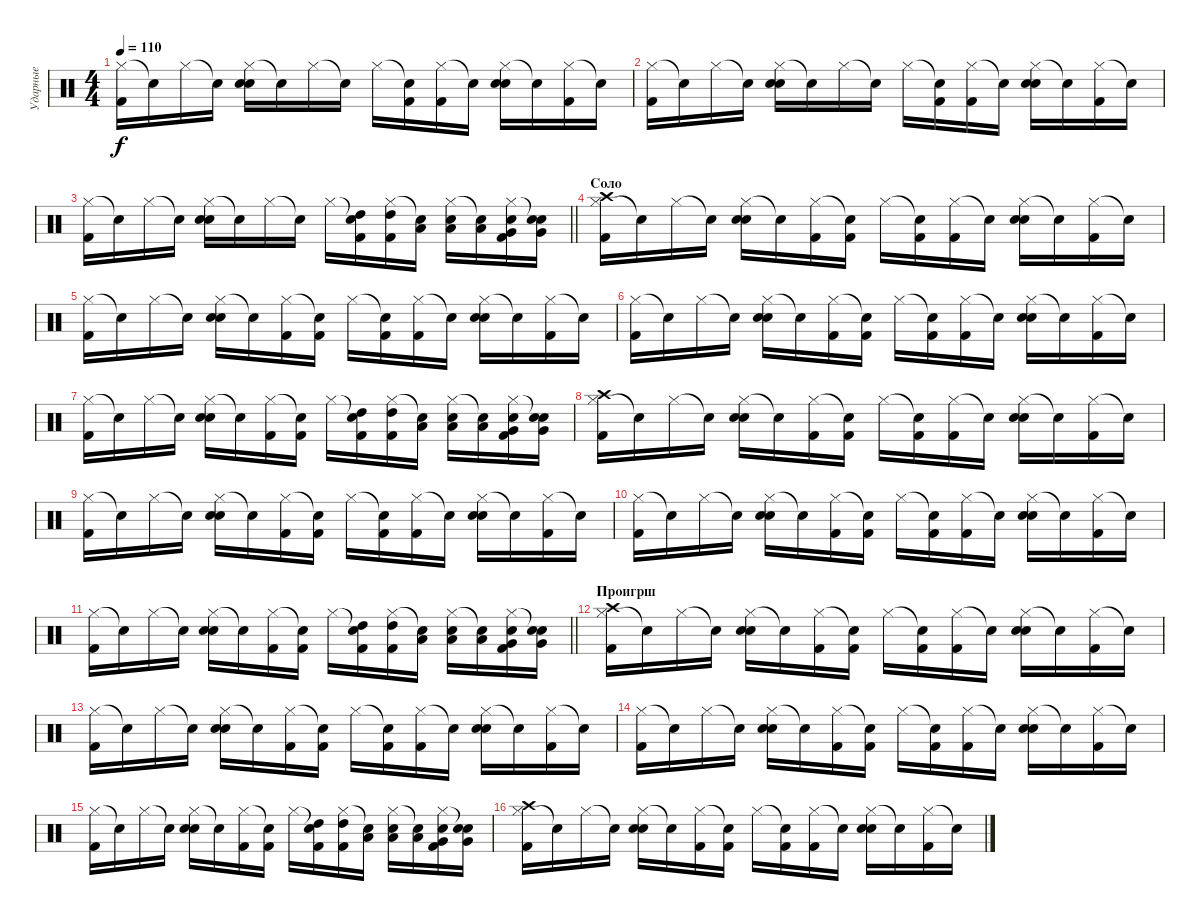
\track ("Ударные" "Ударные") {instrument percussion}
\staff {score}
\articulation defaults
\ts (4 4)
\tempo 110
\clef neutral
\ks c
("Hi-Hat (closed)" "Kick (hit) 2").16{dy f} "Snare (hit)"{t}.16 "Hi-Hat (closed)".16 "Snare (hit)"{t}.16 ("Hi-Hat (closed)" "Snare (hit) 2" "Electric Snare (hit)").16 "Snare (hit)"{t}.16 "Hi-Hat (closed)".16 "Snare (hit)"{t}.16 "Hi-Hat (closed)".16 ("Snare (hit)"{t} "Kick (hit) 2").16 ("Hi-Hat (closed)" "Kick (hit) 2").16 "Snare (hit)"{t}.16 ("Hi-Hat (closed)" "Electric Snare (hit)" "Snare (hit) 2").16 "Snare (hit)"{t}.16 ("Hi-Hat (closed)" "Kick (hit) 2").16 "Snare (hit)"{t}.16 |
("Hi-Hat (closed)" "Kick (hit) 2").16 "Snare (hit)"{t}.16 "Hi-Hat (closed)".16 "Snare (hit)"{t}.16 ("Hi-Hat (closed)" "Snare (hit) 2" "Electric Snare (hit)").16 "Snare (hit)"{t}.16 "Hi-Hat (closed)".16 "Snare (hit)"{t}.16 "Hi-Hat (closed)".16 ("Snare (hit)"{t} "Kick (hit) 2").16 ("Hi-Hat (closed)" "Kick (hit) 2").16 "Snare (hit)"{t}.16 ("Hi-Hat (closed)" "Electric Snare (hit)" "Snare (hit) 2").16 "Snare (hit)"{t}.16 ("Hi-Hat (closed)" "Kick (hit) 2").16 "Snare (hit)"{t}.16 |
\barLineRight lightlight
("Hi-Hat (closed)" "Kick (hit) 2").16 "Snare (hit)"{t}.16 "Hi-Hat (closed)".16 "Snare (hit)"{t}.16 ("Hi-Hat (closed)" "Snare (hit) 2" "Electric Snare (hit)").16 "Snare (hit)"{t}.16 "Hi-Hat (closed)".16 "Snare (hit)"{t}.16 "Hi-Hat (closed)".16 ("Snare (hit)"{t} "High Tom (hit)" "Kick (hit) 2").16 ("Hi-Hat (closed)" "High Tom (hit)" "Kick (hit) 2").16 ("Snare (hit)"{t} "Low Tom (hit)").16 ("Hi-Hat (closed)" "Low Tom (hit)" "Snare (hit) 2").16 ("Snare (hit)"{t} "Low Tom (hit)").16 ("Hi-Hat (closed)" "Very Low Tom (hit)" "Electric Snare (hit)" "Kick (hit) 2").16 ("Snare (hit)"{t} "Very Low Tom (hit)" "Electric Snare (hit)").16 |
\section ("" "Соло")
("Hi-Hat (closed)" "Crash high (hit)" "Kick (hit) 2").16 "Snare (hit)"{t}.16 "Hi-Hat (closed)".16 "Snare (hit)"{t}.16 ("Hi-Hat (closed)" "Snare (hit) 2" "Electric Snare (hit)").16 "Snare (hit)"{t}.16 ("Hi-Hat (closed)" "Kick (hit) 2").16 ("Snare (hit)"{t} "Kick (hit) 2").16 "Hi-Hat (closed)".16 ("Snare (hit)"{t} "Kick (hit) 2").16 ("Hi-Hat (closed)" "Kick (hit) 2").16 "Snare (hit)"{t}.16 ("Hi-Hat (closed)" "Electric Snare (hit)" "Snare (hit) 2").16 "Snare (hit)"{t}.16 ("Hi-Hat (closed)" "Kick (hit) 2").16 "Snare (hit)"{t}.16 |
("Hi-Hat (closed)" "Kick (hit) 2").16 "Snare (hit)"{t}.16 "Hi-Hat (closed)".16 "Snare (hit)"{t}.16 ("Hi-Hat (closed)" "Snare (hit) 2" "Electric Snare (hit)").16 "Snare (hit)"{t}.16 ("Hi-Hat (closed)" "Kick (hit) 2").16 ("Snare (hit)"{t} "Kick (hit) 2").16 "Hi-Hat (closed)".16 ("Snare (hit)"{t} "Kick (hit) 2").16 ("Hi-Hat (closed)" "Kick (hit) 2").16 "Snare (hit)"{t}.16 ("Hi-Hat (closed)" "Electric Snare (hit)" "Snare (hit) 2").16 "Snare (hit)"{t}.16 ("Hi-Hat (closed)" "Kick (hit) 2").16 "Snare (hit)"{t}.16 |
("Hi-Hat (closed)" "Kick (hit) 2").16 "Snare (hit)"{t}.16 "Hi-Hat (closed)".16 "Snare (hit)"{t}.16 ("Hi-Hat (closed)" "Snare (hit) 2" "Electric Snare (hit)").16 "Snare (hit)"{t}.16 ("Hi-Hat (closed)" "Kick (hit) 2").16 ("Snare (hit)"{t} "Kick (hit) 2").16 "Hi-Hat (closed)".16 ("Snare (hit)"{t} "Kick (hit) 2").16 ("Hi-Hat (closed)" "Kick (hit) 2").16 "Snare (hit)"{t}.16 ("Hi-Hat (closed)" "Electric Snare (hit)" "Snare (hit) 2").16 "Snare (hit)"{t}.16 ("Hi-Hat (closed)" "Kick (hit) 2").16 "Snare (hit)"{t}.16 |
("Hi-Hat (closed)" "Kick (hit) 2").16 "Snare (hit)"{t}.16 "Hi-Hat (closed)".16 "Snare (hit)"{t}.16 ("Hi-Hat (closed)" "Snare (hit) 2" "Electric Snare (hit)").16 "Snare (hit)"{t}.16 ("Hi-Hat (closed)" "Kick (hit) 2").16 ("Snare (hit)"{t} "Kick (hit) 2").16 "Hi-Hat (closed)".16 ("Snare (hit)"{t} "High Tom (hit)" "Kick (hit) 2").16 ("Hi-Hat (closed)" "High Tom (hit)" "Kick (hit) 2").16 ("Snare (hit)"{t} "Low Tom (hit)").16 ("Hi-Hat (closed)" "Low Tom (hit)" "Snare (hit) 2").16 ("Snare (hit)"{t} "Low Tom (hit)").16 ("Hi-Hat (closed)" "Very Low Tom (hit)" "Electric Snare (hit)" "Kick (hit) 2").16 ("Snare (hit)"{t} "Very Low Tom (hit)" "Electric Snare (hit)").16 |
("Hi-Hat (closed)" "Crash high (hit)" "Kick (hit) 2").16 "Snare (hit)"{t}.16 "Hi-Hat (closed)".16 "Snare (hit)"{t}.16 ("Hi-Hat (closed)" "Snare (hit) 2" "Electric Snare (hit)").16 "Snare (hit)"{t}.16 ("Hi-Hat (closed)" "Kick (hit) 2").16 ("Snare (hit)"{t} "Kick (hit) 2").16 "Hi-Hat (closed)".16 ("Snare (hit)"{t} "Kick (hit) 2").16 ("Hi-Hat (closed)" "Kick (hit) 2").16 "Snare (hit)"{t}.16 ("Hi-Hat (closed)" "Electric Snare (hit)" "Snare (hit) 2").16 "Snare (hit)"{t}.16 ("Hi-Hat (closed)" "Kick (hit) 2").16 "Snare (hit)"{t}.16 |
("Hi-Hat (closed)" "Kick (hit) 2").16 "Snare (hit)"{t}.16 "Hi-Hat (closed)".16 "Snare (hit)"{t}.16 ("Hi-Hat (closed)" "Snare (hit) 2" "Electric Snare (hit)").16 "Snare (hit)"{t}.16 ("Hi-Hat (closed)" "Kick (hit) 2").16 ("Snare (hit)"{t} "Kick (hit) 2").16 "Hi-Hat (closed)".16 ("Snare (hit)"{t} "Kick (hit) 2").16 ("Hi-Hat (closed)" "Kick (hit) 2").16 "Snare (hit)"{t}.16 ("Hi-Hat (closed)" "Electric Snare (hit)" "Snare (hit) 2").16 "Snare (hit)"{t}.16 ("Hi-Hat (closed)" "Kick (hit) 2").16 "Snare (hit)"{t}.16 |
("Hi-Hat (closed)" "Kick (hit) 2").16 "Snare (hit)"{t}.16 "Hi-Hat (closed)".16 "Snare (hit)"{t}.16 ("Hi-Hat (closed)" "Snare (hit) 2" "Electric Snare (hit)").16 "Snare (hit)"{t}.16 ("Hi-Hat (closed)" "Kick (hit) 2").16 ("Snare (hit)"{t} "Kick (hit) 2").16 "Hi-Hat (closed)".16 ("Snare (hit)"{t} "Kick (hit) 2").16 ("Hi-Hat (closed)" "Kick (hit) 2").16 "Snare (hit)"{t}.16 ("Hi-Hat (closed)" "Electric Snare (hit)" "Snare (hit) 2").16 "Snare (hit)"{t}.16 ("Hi-Hat (closed)" "Kick (hit) 2").16 "Snare (hit)"{t}.16 |
\barLineRight lightlight
("Hi-Hat (closed)" "Kick (hit) 2").16 "Snare (hit)"{t}.16 "Hi-Hat (closed)".16 "Snare (hit)"{t}.16 ("Hi-Hat (closed)" "Snare (hit) 2" "Electric Snare (hit)").16 "Snare (hit)"{t}.16 ("Hi-Hat (closed)" "Kick (hit) 2").16 ("Snare (hit)"{t} "Kick (hit) 2").16 "Hi-Hat (closed)".16 ("Snare (hit)"{t} "High Tom (hit)" "Kick (hit) 2").16 ("Hi-Hat (closed)" "High Tom (hit)" "Kick (hit) 2").16 ("Snare (hit)"{t} "Low Tom (hit)").16 ("Hi-Hat (closed)" "Low Tom (hit)" "Snare (hit) 2").16 ("Snare (hit)"{t} "Low Tom (hit)").16 ("Hi-Hat (closed)" "Very Low Tom (hit)" "Electric Snare (hit)" "Kick (hit) 2").16 ("Snare (hit)"{t} "Very Low Tom (hit)" "Electric Snare (hit)").16 |
\section ("" "Проигрш")
("Hi-Hat (closed)" "Crash high (hit)" "Kick (hit) 2").16 "Snare (hit)"{t}.16 "Hi-Hat (closed)".16 "Snare (hit)"{t}.16 ("Hi-Hat (closed)" "Snare (hit) 2" "Electric Snare (hit)").16 "Snare (hit)"{t}.16 ("Hi-Hat (closed)" "Kick (hit) 2").16 ("Snare (hit)"{t} "Kick (hit) 2").16 "Hi-Hat (closed)".16 ("Snare (hit)"{t} "Kick (hit) 2").16 ("Hi-Hat (closed)" "Kick (hit) 2").16 "Snare (hit)"{t}.16 ("Hi-Hat (closed)" "Electric Snare (hit)" "Snare (hit) 2").16 "Snare (hit)"{t}.16 ("Hi-Hat (closed)" "Kick (hit) 2").16 "Snare (hit)"{t}.16 |
("Hi-Hat (closed)" "Kick (hit) 2").16 "Snare (hit)"{t}.16 "Hi-Hat (closed)".16 "Snare (hit)"{t}.16 ("Hi-Hat (closed)" "Snare (hit) 2" "Electric Snare (hit)").16 "Snare (hit)"{t}.16 ("Hi-Hat (closed)" "Kick (hit) 2").16 ("Snare (hit)"{t} "Kick (hit) 2").16 "Hi-Hat (closed)".16 ("Snare (hit)"{t} "Kick (hit) 2").16 ("Hi-Hat (closed)" "Kick (hit) 2").16 "Snare (hit)"{t}.16 ("Hi-Hat (closed)" "Electric Snare (hit)" "Snare (hit) 2").16 "Snare (hit)"{t}.16 ("Hi-Hat (closed)" "Kick (hit) 2").16 "Snare (hit)"{t}.16 |
("Hi-Hat (closed)" "Kick (hit) 2").16 "Snare (hit)"{t}.16 "Hi-Hat (closed)".16 "Snare (hit)"{t}.16 ("Hi-Hat (closed)" "Snare (hit) 2" "Electric Snare (hit)").16 "Snare (hit)"{t}.16 ("Hi-Hat (closed)" "Kick (hit) 2").16 ("Snare (hit)"{t} "Kick (hit) 2").16 "Hi-Hat (closed)".16 ("Snare (hit)"{t} "Kick (hit) 2").16 ("Hi-Hat (closed)" "Kick (hit) 2").16 "Snare (hit)"{t}.16 ("Hi-Hat (closed)" "Electric Snare (hit)" "Snare (hit) 2").16 "Snare (hit)"{t}.16 ("Hi-Hat (closed)" "Kick (hit) 2").16 "Snare (hit)"{t}.16 |
("Hi-Hat (closed)" "Kick (hit) 2").16 "Snare (hit)"{t}.16 "Hi-Hat (closed)".16 "Snare (hit)"{t}.16 ("Hi-Hat (closed)" "Snare (hit) 2" "Electric Snare (hit)").16 "Snare (hit)"{t}.16 ("Hi-Hat (closed)" "Kick (hit) 2").16 ("Snare (hit)"{t} "Kick (hit) 2").16 "Hi-Hat (closed)".16 ("Snare (hit)"{t} "High Tom (hit)" "Kick (hit) 2").16 ("Hi-Hat (closed)" "High Tom (hit)" "Kick (hit) 2").16 ("Snare (hit)"{t} "Low Tom (hit)").16 ("Hi-Hat (closed)" "Low Tom (hit)" "Snare (hit) 2").16 ("Snare (hit)"{t} "Low Tom (hit)").16 ("Hi-Hat (closed)" "Very Low Tom (hit)" "Electric Snare (hit)" "Kick (hit) 2").16 ("Snare (hit)"{t} "Very Low Tom (hit)" "Electric Snare (hit)").16 |
("Hi-Hat (closed)" "Crash high (hit)" "Kick (hit) 2").16 "Snare (hit)"{t}.16 "Hi-Hat (closed)".16 "Snare (hit)"{t}.16 ("Hi-Hat (closed)" "Snare (hit) 2" "Electric Snare (hit)").16 "Snare (hit)"{t}.16 ("Hi-Hat (closed)" "Kick (hit) 2").16 ("Snare (hit)"{t} "Kick (hit) 2").16 "Hi-Hat (closed)".16 ("Snare (hit)"{t} "Kick (hit) 2").16 ("Hi-Hat (closed)" "Kick (hit) 2").16 "Snare (hit)"{t}.16 ("Hi-Hat (closed)" "Electric Snare (hit)" "Snare (hit) 2").16 "Snare (hit)"{t}.16 ("Hi-Hat (closed)" "Kick (hit) 2").16 "Snare (hit)"{t}.16
